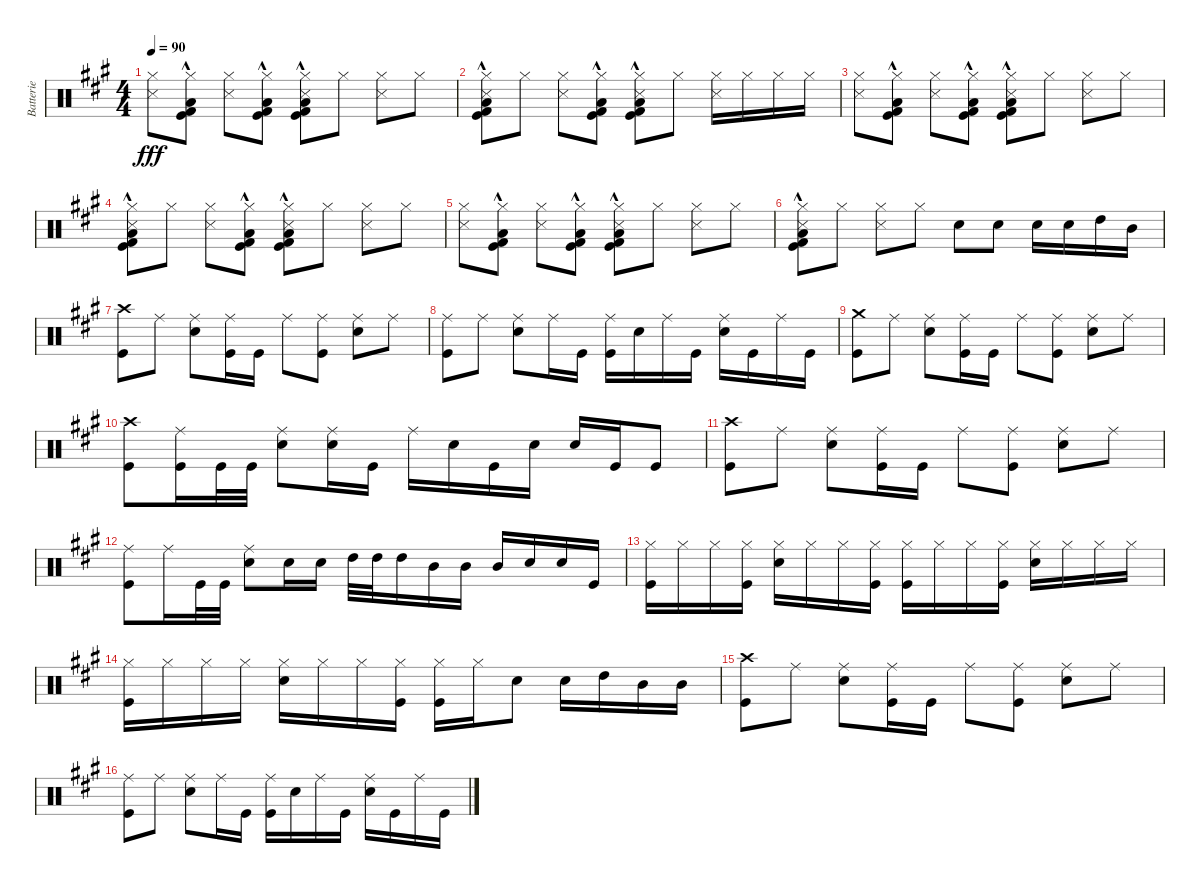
\track ("Batterie" "Batterie") {instrument percussion}
\staff {score}
\articulation defaults
\ts (4 4)
\tempo 90
\clef neutral
\ks a
("Hi-Hat (closed)" "Snare (side stick) 3").8{dy fff} ("Hi-Hat (closed)" "Kick (hit)"{hac} "Kick (hit) 2"{hac} "Low Floor Tom (hit)"{hac}).8 ("Hi-Hat (closed)" "Snare (side stick) 3").8 ("Hi-Hat (closed)" "Kick (hit)"{hac} "Kick (hit) 2"{hac} "Low Floor Tom (hit)"{hac}).8 ("Hi-Hat (closed)" "Snare (side stick) 3" "Kick (hit)"{hac} "Kick (hit) 2"{hac} "Low Floor Tom (hit)"{hac}).8 "Hi-Hat (closed)".8 ("Hi-Hat (closed)" "Snare (side stick) 3").8 "Hi-Hat (closed)".8 |
("Hi-Hat (closed)" "Snare (side stick) 3" "Kick (hit)"{hac} "Kick (hit) 2"{hac} "Low Floor Tom (hit)"{hac}).8 "Hi-Hat (closed)".8 ("Hi-Hat (closed)" "Snare (side stick) 3").8 ("Hi-Hat (closed)" "Kick (hit)"{hac} "Kick (hit) 2"{hac} "Low Floor Tom (hit)"{hac}).8 ("Hi-Hat (closed)" "Snare (side stick) 3" "Kick (hit)"{hac} "Kick (hit) 2"{hac} "Low Floor Tom (hit)"{hac}).8 "Hi-Hat (closed)".8 ("Hi-Hat (closed)" "Snare (side stick) 3").16 "Hi-Hat (closed)".16 "Hi-Hat (closed)".16 "Hi-Hat (closed)".16 |
("Hi-Hat (closed)" "Snare (side stick) 3").8 ("Hi-Hat (closed)" "Kick (hit)"{hac} "Kick (hit) 2"{hac} "Low Floor Tom (hit)"{hac}).8 ("Hi-Hat (closed)" "Snare (side stick) 3").8 ("Hi-Hat (closed)" "Kick (hit)"{hac} "Kick (hit) 2"{hac} "Low Floor Tom (hit)"{hac}).8 ("Hi-Hat (closed)" "Snare (side stick) 3" "Kick (hit)"{hac} "Kick (hit) 2"{hac} "Low Floor Tom (hit)"{hac}).8 "Hi-Hat (closed)".8 ("Hi-Hat (closed)" "Snare (side stick) 3").8 "Hi-Hat (closed)".8 |
("Hi-Hat (closed)" "Snare (side stick) 3" "Kick (hit)"{hac} "Kick (hit) 2"{hac} "Low Floor Tom (hit)"{hac}).8 "Hi-Hat (closed)".8 ("Hi-Hat (closed)" "Snare (side stick) 3").8 ("Hi-Hat (closed)" "Kick (hit)"{hac} "Kick (hit) 2"{hac} "Low Floor Tom (hit)"{hac}).8 ("Hi-Hat (closed)" "Snare (side stick) 3" "Kick (hit)"{hac} "Kick (hit) 2"{hac} "Low Floor Tom (hit)"{hac}).8 "Hi-Hat (closed)".8 ("Hi-Hat (closed)" "Snare (side stick) 3").8 "Hi-Hat (closed)".8 |
("Hi-Hat (closed)" "Snare (side stick) 3").8 ("Hi-Hat (closed)" "Kick (hit)"{hac} "Kick (hit) 2"{hac} "Low Floor Tom (hit)"{hac}).8 ("Hi-Hat (closed)" "Snare (side stick) 3").8 ("Hi-Hat (closed)" "Kick (hit)"{hac} "Kick (hit) 2"{hac} "Low Floor Tom (hit)"{hac}).8 ("Hi-Hat (closed)" "Snare (side stick) 3" "Kick (hit)"{hac} "Kick (hit) 2"{hac} "Low Floor Tom (hit)"{hac}).8 "Hi-Hat (closed)".8 ("Hi-Hat (closed)" "Snare (side stick) 3").8 "Hi-Hat (closed)".8 |
("Hi-Hat (closed)" "Snare (side stick) 3" "Kick (hit)"{hac} "Kick (hit) 2"{hac} "Low Floor Tom (hit)"{hac}).8 "Hi-Hat (closed)".8 ("Hi-Hat (closed)" "Snare (side stick) 3").8 "Hi-Hat (closed)".8 "Electric Snare (hit)".8 "Electric Snare (hit)".8 "Electric Snare (hit)".16 "Electric Snare (hit)".16 "High Tom (hit)".16 "Mid Tom (hit)".16 |
("Crash high (hit)" "Kick (hit)").8 "Ride (middle)".8 ("Ride (middle)" "Electric Snare (hit)").8 ("Ride (middle)" "Kick (hit)").16 "Kick (hit)".16 "Ride (middle)".8 ("Ride (middle)" "Kick (hit)").8 ("Ride (middle)" "Electric Snare (hit)").8 "Ride (middle)".8 |
("Ride (middle)" "Kick (hit)").8 "Ride (middle)".8 ("Ride (middle)" "Electric Snare (hit)").8 "Ride (middle)".16 "Kick (hit)".16 ("Ride (middle)" "Kick (hit)").16 "Electric Snare (hit)".16 "Ride (middle)".16 "Kick (hit)".16 ("Ride (middle)" "Electric Snare (hit)").16 "Kick (hit)".16 "Ride (middle)".16 "Kick (hit)".16 |
("Crash medium (hit)" "Kick (hit)").8 "Ride (middle)".8 ("Ride (middle)" "Electric Snare (hit)").8 ("Ride (middle)" "Kick (hit)").16 "Kick (hit)".16 "Ride (middle)".8 ("Ride (middle)" "Kick (hit)").8 ("Ride (middle)" "Electric Snare (hit)").8 "Ride (middle)".8 |
("Crash high (hit)" "Kick (hit)").8 ("Ride (middle)" "Kick (hit)").16 "Kick (hit)".32 "Kick (hit)".32 ("Ride (middle)" "Electric Snare (hit)").8 ("Ride (middle)" "Electric Snare (hit)").16 "Kick (hit)".16 "Ride (middle)".16 "Electric Snare (hit)".16 "Kick (hit)".16 "Electric Snare (hit)".16 "Electric Snare (hit)".16 "Kick (hit)".16 "Kick (hit)".8 |
("Crash high (hit)" "Kick (hit)").8 "Ride (middle)".8 ("Ride (middle)" "Electric Snare (hit)").8 ("Ride (middle)" "Kick (hit)").16 "Kick (hit)".16 "Ride (middle)".8 ("Ride (middle)" "Kick (hit)").8 ("Ride (middle)" "Electric Snare (hit)").8 "Ride (middle)".8 |
("Ride (middle)" "Kick (hit)").8 "Ride (middle)".16 "Kick (hit)".32 "Kick (hit)".32 ("Ride (middle)" "Electric Snare (hit)").8 "Electric Snare (hit)".16 "Electric Snare (hit)".16 "High Tom (hit)".32 "High Tom (hit)".32 "High Tom (hit)".16 "Mid Tom (hit)".16 "Mid Tom (hit)".16 "Mid Tom (hit)".16 "Electric Snare (hit)".16 "Electric Snare (hit)".16 "Kick (hit)".16 |
("Hi-Hat (closed)" "Kick (hit)").16 "Hi-Hat (closed)".16 "Hi-Hat (closed)".16 ("Hi-Hat (closed)" "Kick (hit)").16 ("Hi-Hat (closed)" "Electric Snare (hit)").16 "Hi-Hat (closed)".16 "Hi-Hat (closed)".16 ("Hi-Hat (closed)" "Kick (hit)").16 ("Hi-Hat (closed)" "Kick (hit)").16 "Hi-Hat (closed)".16 "Hi-Hat (closed)".16 ("Hi-Hat (closed)" "Kick (hit)").16 ("Hi-Hat (closed)" "Electric Snare (hit)").16 "Hi-Hat (closed)".16 "Hi-Hat (closed)".16 "Hi-Hat (closed)".16 |
("Hi-Hat (closed)" "Kick (hit)").16 "Hi-Hat (closed)".16 "Hi-Hat (closed)".16 "Hi-Hat (closed)".16 ("Hi-Hat (closed)" "Electric Snare (hit)").16 "Hi-Hat (closed)".16 "Hi-Hat (closed)".16 ("Hi-Hat (closed)" "Kick (hit)").16 ("Hi-Hat (closed)" "Kick (hit)").16 "Hi-Hat (closed)".16 "Electric Snare (hit)".8 "Electric Snare (hit)".16 "High Tom (hit)".16 "Mid Tom (hit)".16 "Mid Tom (hit)".16 |
("Crash high (hit)" "Kick (hit)").8 "Ride (middle)".8 ("Ride (middle)" "Electric Snare (hit)").8 ("Ride (middle)" "Kick (hit)").16 "Kick (hit)".16 "Ride (middle)".8 ("Ride (middle)" "Kick (hit)").8 ("Ride (middle)" "Electric Snare (hit)").8 "Ride (middle)".8 |
("Ride (middle)" "Kick (hit)").8 "Ride (middle)".8 ("Ride (middle)" "Electric Snare (hit)").8 "Ride (middle)".16 "Kick (hit)".16 ("Ride (middle)" "Kick (hit)").16 "Electric Snare (hit)".16 "Ride (middle)".16 "Kick (hit)".16 ("Ride (middle)" "Electric Snare (hit)").16 "Kick (hit)".16 "Ride (middle)".16 "Kick (hit)".16
